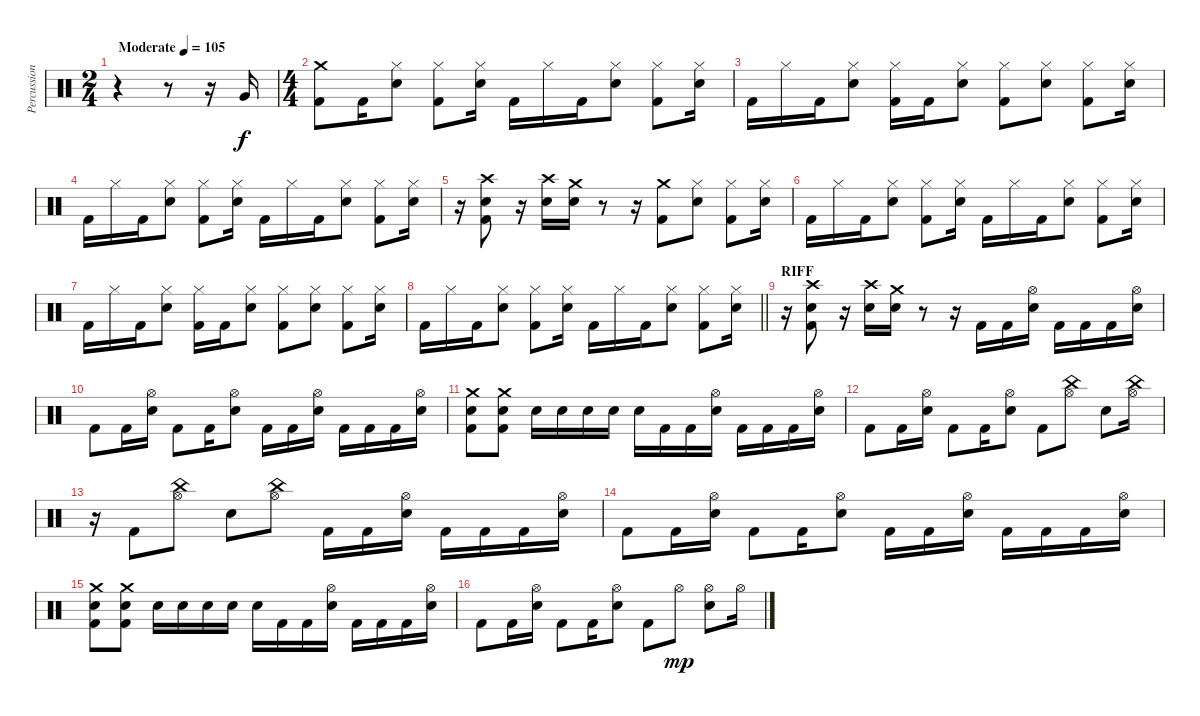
\track ("Percussion" "Percussion") {instrument percussion}
\staff {score}
\articulation defaults
\ts (2 4)
\tempo (105 "Moderate")
\clef neutral
\ks c
r.4{dy f} r.8 r.16 "Very Low Tom (hit)".16 |
\ts (4 4)
("Crash medium (hit)" "Kick (hit) 2").8 "Kick (hit) 2".16 ("Hi-Hat (closed)" "Snare (hit) 2").8 ("Hi-Hat (closed)" "Kick (hit) 2").8 ("Hi-Hat (closed)" "Snare (hit) 2").16 "Kick (hit) 2".16 "Hi-Hat (closed)".16 "Kick (hit) 2".16 ("Hi-Hat (closed)" "Snare (hit) 2").8 ("Hi-Hat (closed)" "Kick (hit) 2").8 ("Hi-Hat (closed)" "Snare (hit) 2").16 |
"Kick (hit) 2".16 "Hi-Hat (closed)".16 "Kick (hit) 2".16 ("Hi-Hat (closed)" "Snare (hit) 2").8 ("Hi-Hat (closed)" "Kick (hit) 2").16 "Kick (hit) 2".16 ("Hi-Hat (closed)" "Snare (hit) 2").8 ("Hi-Hat (closed)" "Kick (hit) 2").8 ("Hi-Hat (closed)" "Snare (hit) 2").8 ("Hi-Hat (closed)" "Kick (hit) 2").8 ("Hi-Hat (closed)" "Snare (hit) 2").16 |
"Kick (hit) 2".16 "Hi-Hat (closed)".16 "Kick (hit) 2".16 ("Hi-Hat (closed)" "Snare (hit) 2").8 ("Hi-Hat (closed)" "Kick (hit) 2").8 ("Hi-Hat (closed)" "Snare (hit) 2").16 "Kick (hit) 2".16 "Hi-Hat (closed)".16 "Kick (hit) 2".16 ("Hi-Hat (closed)" "Snare (hit) 2").8 ("Hi-Hat (closed)" "Kick (hit) 2").8 ("Hi-Hat (closed)" "Snare (hit) 2").16 |
r.16 ("Crash high (hit)" "Snare (hit) 2" "Kick (hit) 2").8 r.16 ("Crash high (hit)" "Snare (hit) 2").16 ("Crash medium (hit)" "Snare (hit) 2").16 r.8 r.16 ("Crash medium (hit)" "Kick (hit) 2").8 ("Hi-Hat (closed)" "Snare (hit) 2").8 ("Hi-Hat (closed)" "Kick (hit) 2").8 ("Hi-Hat (closed)" "Snare (hit) 2").16 |
"Kick (hit) 2".16 "Hi-Hat (closed)".16 "Kick (hit) 2".16 ("Hi-Hat (closed)" "Snare (hit) 2").8 ("Hi-Hat (closed)" "Kick (hit) 2").8 ("Hi-Hat (closed)" "Snare (hit) 2").16 "Kick (hit) 2".16 "Hi-Hat (closed)".16 "Kick (hit) 2".16 ("Hi-Hat (closed)" "Snare (hit) 2").8 ("Hi-Hat (closed)" "Kick (hit) 2").8 ("Hi-Hat (closed)" "Snare (hit) 2").16 |
"Kick (hit) 2".16 "Hi-Hat (closed)".16 "Kick (hit) 2".16 ("Hi-Hat (closed)" "Snare (hit) 2").8 ("Hi-Hat (closed)" "Kick (hit) 2").16 "Kick (hit) 2".16 ("Hi-Hat (closed)" "Snare (hit) 2").8 ("Hi-Hat (closed)" "Kick (hit) 2").8 ("Hi-Hat (closed)" "Snare (hit) 2").8 ("Hi-Hat (closed)" "Kick (hit) 2").8 ("Hi-Hat (closed)" "Snare (hit) 2").16 |
\barLineRight lightlight "Kick (hit) 2".16 "Hi-Hat (closed)".16 "Kick (hit) 2".16
("Hi-Hat (closed)" "Snare (hit) 2").8 ("Hi-Hat (closed)" "Kick (hit) 2").8 ("Hi-Hat (closed)" "Snare (hit) 2").16 "Kick (hit) 2".16 "Hi-Hat (closed)".16 "Kick (hit) 2".16 ("Hi-Hat (closed)" "Snare (hit) 2").8 ("Hi-Hat (closed)" "Kick (hit) 2").8 ("Hi-Hat (closed)" "Snare (hit) 2").16 |
\section ("" "RIFF")
r.16 ("Crash high (hit)" "Snare (hit) 2" "Kick (hit) 2").8 r.16 ("Crash high (hit)" "Snare (hit) 2").16 ("Crash medium (hit)" "Snare (hit) 2").16 r.8 r.16 "Kick (hit) 2".16 "Kick (hit) 2".16 ("Hi-Hat (open)" "Snare (hit) 2").16 "Kick (hit) 2".16 "Kick (hit) 2".16 "Kick (hit) 2".16 ("Hi-Hat (open)" "Snare (hit) 2").16 |
"Kick (hit) 2".8 "Kick (hit) 2".16 ("Hi-Hat (open)" "Snare (hit) 2").16 "Kick (hit) 2".8 "Kick (hit) 2".16 ("Hi-Hat (open)" "Snare (hit) 2").8 "Kick (hit) 2".16 "Kick (hit) 2".16 ("Hi-Hat (open)" "Snare (hit) 2").16 "Kick (hit) 2".16 "Kick (hit) 2".16 "Kick (hit) 2".16 ("Hi-Hat (open)" "Snare (hit) 2").16 |
("Crash medium (hit)" "Snare (hit) 2" "Kick (hit) 2").8 ("Crash medium (hit)" "Snare (hit) 2" "Kick (hit) 2").8 "Snare (hit) 2".16 "Snare (hit) 2".16 "Snare (hit) 2".16 "Snare (hit) 2".16 "Snare (hit) 2".16 "Kick (hit) 2".16 "Kick (hit) 2".16 ("Hi-Hat (open)" "Snare (hit) 2").16 "Kick (hit) 2".16 "Kick (hit) 2".16 "Kick (hit) 2".16 ("Hi-Hat (open)" "Snare (hit) 2").16 |
"Kick (hit) 2".8 "Kick (hit) 2".16 ("Hi-Hat (open)" "Snare (hit) 2").16 "Kick (hit) 2".8 "Kick (hit) 2".16 ("Hi-Hat (open)" "Snare (hit) 2").8 "Kick (hit) 2".8 ("Hi-Hat (open)" "China (hit)").8 "Snare (hit) 2".8 ("Hi-Hat (open)" "China (hit)").16 |
r.16 "Kick (hit) 2".8 ("Hi-Hat (open)" "China (hit)").8 "Snare (hit) 2".8 ("Hi-Hat (open)" "China (hit)").8 "Kick (hit) 2".16 "Kick (hit) 2".16 ("Hi-Hat (open)" "Snare (hit) 2").16 "Kick (hit) 2".16 "Kick (hit) 2".16 "Kick (hit) 2".16 ("Hi-Hat (open)" "Snare (hit) 2").16 |
"Kick (hit) 2".8 "Kick (hit) 2".16 ("Hi-Hat (open)" "Snare (hit) 2").16 "Kick (hit) 2".8 "Kick (hit) 2".16 ("Hi-Hat (open)" "Snare (hit) 2").8 "Kick (hit) 2".16 "Kick (hit) 2".16 ("Hi-Hat (open)" "Snare (hit) 2").16 "Kick (hit) 2".16 "Kick (hit) 2".16 "Kick (hit) 2".16 ("Hi-Hat (open)" "Snare (hit) 2").16 |
("Crash medium (hit)" "Snare (hit) 2" "Kick (hit) 2").8 ("Crash medium (hit)" "Snare (hit) 2" "Kick (hit) 2").8 "Snare (hit) 2".16 "Snare (hit) 2".16 "Snare (hit) 2".16 "Snare (hit) 2".16 "Snare (hit) 2".16 "Kick (hit) 2".16 "Kick (hit) 2".16 ("Hi-Hat (open)" "Snare (hit) 2").16 "Kick (hit) 2".16 "Kick (hit) 2".16 "Kick (hit) 2".16 ("Hi-Hat (open)" "Snare (hit) 2").16 |
"Kick (hit) 2".8 "Kick (hit) 2".16 ("Hi-Hat (open)" "Snare (hit) 2").16 "Kick (hit) 2".8 "Kick (hit) 2".16 ("Hi-Hat (open)" "Snare (hit) 2").8 "Kick (hit) 2".8 "Hi-Hat (open)".8{dy mp} ("Hi-Hat (open)" "Snare (hit) 2").8 "Hi-Hat (open)".16
